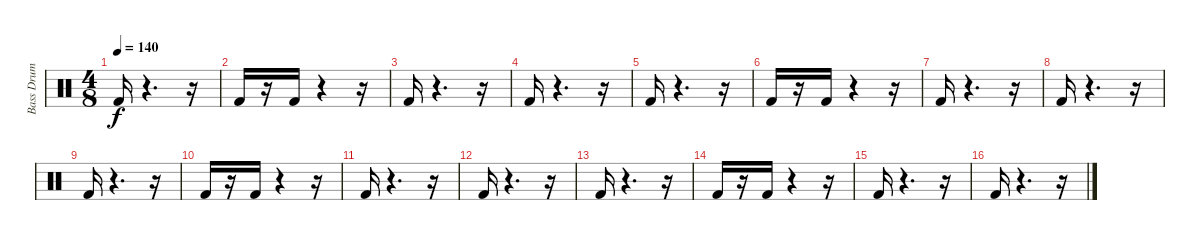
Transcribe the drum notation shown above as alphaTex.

\track ("Bass Drum" "Bass Drum") {instrument percussion}
\staff {score}
\articulation defaults
\ts (4 8)
\tempo 140
\clef neutral
\ks c "Kick (hit) 2".16{dy f}
r.4{d} r.16 |
"Kick (hit) 2".16 r.16 "Kick (hit) 2".16 r.4 r.16 |
"Kick (hit) 2".16 r.4{d} r.16 |
"Kick (hit) 2".16 r.4{d} r.16 |
"Kick (hit) 2".16 r.4{d} r.16 |
"Kick (hit) 2".16 r.16 "Kick (hit) 2".16 r.4 r.16 |
"Kick (hit) 2".16 r.4{d} r.16 |
"Kick (hit) 2".16 r.4{d} r.16 |
"Kick (hit) 2".16 r.4{d} r.16 |
"Kick (hit) 2".16 r.16 "Kick (hit) 2".16 r.4 r.16 |
"Kick (hit) 2".16 r.4{d} r.16 |
"Kick (hit) 2".16 r.4{d} r.16 |
"Kick (hit) 2".16 r.4{d} r.16 |
"Kick (hit) 2".16 r.16 "Kick (hit) 2".16 r.4 r.16 |
"Kick (hit) 2".16 r.4{d} r.16 |
"Kick (hit) 2".16 r.4{d} r.16
